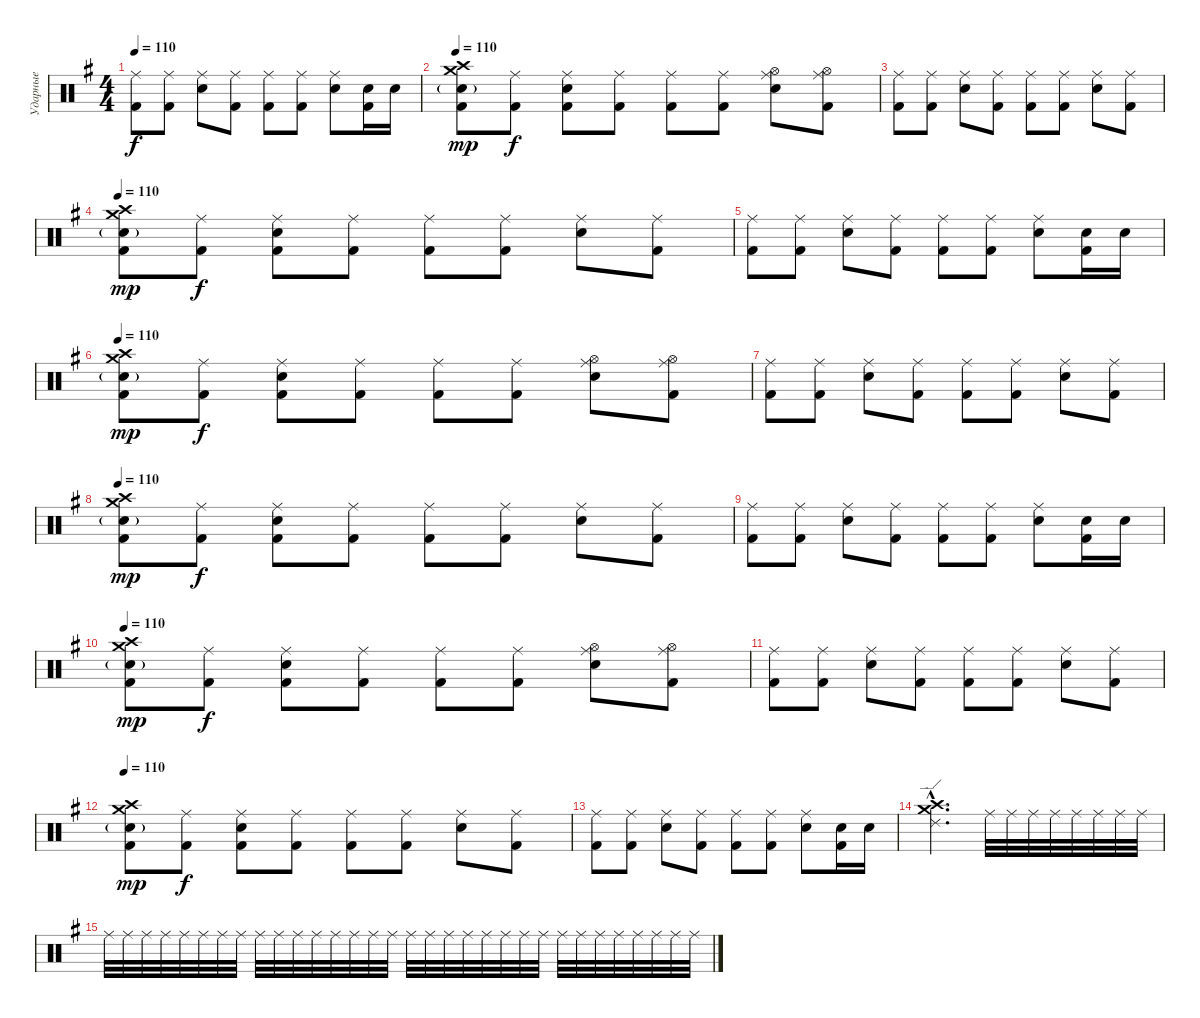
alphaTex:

\track ("Ударные" "Ударные") {instrument percussion}
\staff {score}
\articulation defaults
\ts (4 4)
\tempo 110
\clef neutral
\ks eminor
("Ride (middle)" "Kick (hit) 2").8{dy f} ("Ride (middle)" "Kick (hit) 2").8 ("Ride (middle)" "Electric Snare (hit)").8 ("Ride (middle)" "Kick (hit) 2").8 ("Ride (middle)" "Kick (hit) 2").8 ("Ride (middle)" "Kick (hit) 2").8 ("Ride (middle)" "Electric Snare (hit)").8 ("Electric Snare (hit)" "Kick (hit) 2").16 "Electric Snare (hit)".16 |
\tempo 110
("Crash high (hit)" "Crash medium (hit)" "Electric Snare (hit)"{g} "Kick (hit) 2").8{dy mp} ("Ride (middle)" "Kick (hit) 2").8{dy f} ("Ride (middle)" "Electric Snare (hit)" "Kick (hit) 2").8 ("Ride (middle)" "Kick (hit) 2").8 ("Ride (middle)" "Kick (hit) 2").8 ("Ride (middle)" "Kick (hit) 2").8 ("Ride (middle)" "Hi-Hat (open)" "Electric Snare (hit)").8 ("Ride (middle)" "Hi-Hat (open)" "Kick (hit) 2").8 |
("Ride (middle)" "Kick (hit) 2").8 ("Ride (middle)" "Kick (hit) 2").8 ("Ride (middle)" "Electric Snare (hit)").8 ("Ride (middle)" "Kick (hit) 2").8 ("Ride (middle)" "Kick (hit) 2").8 ("Ride (middle)" "Kick (hit) 2").8 ("Ride (middle)" "Electric Snare (hit)").8 ("Ride (middle)" "Kick (hit) 2").8 |
\tempo 110
("Crash high (hit)" "Crash medium (hit)" "Electric Snare (hit)"{g} "Kick (hit) 2").8{dy mp} ("Ride (middle)" "Kick (hit) 2").8{dy f} ("Ride (middle)" "Electric Snare (hit)" "Kick (hit) 2").8 ("Ride (middle)" "Kick (hit) 2").8 ("Ride (middle)" "Kick (hit) 2").8 ("Ride (middle)" "Kick (hit) 2").8 ("Ride (middle)" "Electric Snare (hit)").8 ("Ride (middle)" "Kick (hit) 2").8 |
("Ride (middle)" "Kick (hit) 2").8 ("Ride (middle)" "Kick (hit) 2").8 ("Ride (middle)" "Electric Snare (hit)").8 ("Ride (middle)" "Kick (hit) 2").8 ("Ride (middle)" "Kick (hit) 2").8 ("Ride (middle)" "Kick (hit) 2").8 ("Ride (middle)" "Electric Snare (hit)").8 ("Electric Snare (hit)" "Kick (hit) 2").16 "Electric Snare (hit)".16 |
\tempo 110
("Crash high (hit)" "Crash medium (hit)" "Electric Snare (hit)"{g} "Kick (hit) 2").8{dy mp} ("Ride (middle)" "Kick (hit) 2").8{dy f} ("Ride (middle)" "Electric Snare (hit)" "Kick (hit) 2").8 ("Ride (middle)" "Kick (hit) 2").8 ("Ride (middle)" "Kick (hit) 2").8 ("Ride (middle)" "Kick (hit) 2").8 ("Ride (middle)" "Hi-Hat (open)" "Electric Snare (hit)").8 ("Ride (middle)" "Hi-Hat (open)" "Kick (hit) 2").8 |
("Ride (middle)" "Kick (hit) 2").8 ("Ride (middle)" "Kick (hit) 2").8 ("Ride (middle)" "Electric Snare (hit)").8 ("Ride (middle)" "Kick (hit) 2").8 ("Ride (middle)" "Kick (hit) 2").8 ("Ride (middle)" "Kick (hit) 2").8 ("Ride (middle)" "Electric Snare (hit)").8 ("Ride (middle)" "Kick (hit) 2").8 |
\tempo 110
("Crash high (hit)" "Crash medium (hit)" "Electric Snare (hit)"{g} "Kick (hit) 2").8{dy mp} ("Ride (middle)" "Kick (hit) 2").8{dy f} ("Ride (middle)" "Electric Snare (hit)" "Kick (hit) 2").8 ("Ride (middle)" "Kick (hit) 2").8 ("Ride (middle)" "Kick (hit) 2").8 ("Ride (middle)" "Kick (hit) 2").8 ("Ride (middle)" "Electric Snare (hit)").8 ("Ride (middle)" "Kick (hit) 2").8 |
("Ride (middle)" "Kick (hit) 2").8 ("Ride (middle)" "Kick (hit) 2").8 ("Ride (middle)" "Electric Snare (hit)").8 ("Ride (middle)" "Kick (hit) 2").8 ("Ride (middle)" "Kick (hit) 2").8 ("Ride (middle)" "Kick (hit) 2").8 ("Ride (middle)" "Electric Snare (hit)").8 ("Electric Snare (hit)" "Kick (hit) 2").16 "Electric Snare (hit)".16 |
\tempo 110
("Crash high (hit)" "Crash medium (hit)" "Electric Snare (hit)"{g} "Kick (hit) 2").8{dy mp} ("Ride (middle)" "Kick (hit) 2").8{dy f} ("Ride (middle)" "Electric Snare (hit)" "Kick (hit) 2").8 ("Ride (middle)" "Kick (hit) 2").8 ("Ride (middle)" "Kick (hit) 2").8 ("Ride (middle)" "Kick (hit) 2").8 ("Ride (middle)" "Hi-Hat (open)" "Electric Snare (hit)").8 ("Ride (middle)" "Hi-Hat (open)" "Kick (hit) 2").8 |
("Ride (middle)" "Kick (hit) 2").8 ("Ride (middle)" "Kick (hit) 2").8 ("Ride (middle)" "Electric Snare (hit)").8 ("Ride (middle)" "Kick (hit) 2").8 ("Ride (middle)" "Kick (hit) 2").8 ("Ride (middle)" "Kick (hit) 2").8 ("Ride (middle)" "Electric Snare (hit)").8 ("Ride (middle)" "Kick (hit) 2").8 |
\tempo 110
("Crash high (hit)" "Crash medium (hit)" "Electric Snare (hit)"{g} "Kick (hit) 2").8{dy mp} ("Ride (middle)" "Kick (hit) 2").8{dy f} ("Ride (middle)" "Electric Snare (hit)" "Kick (hit) 2").8 ("Ride (middle)" "Kick (hit) 2").8 ("Ride (middle)" "Kick (hit) 2").8 ("Ride (middle)" "Kick (hit) 2").8 ("Ride (middle)" "Electric Snare (hit)").8 ("Ride (middle)" "Kick (hit) 2").8 |
("Ride (middle)" "Kick (hit) 2").8 ("Ride (middle)" "Kick (hit) 2").8 ("Ride (middle)" "Electric Snare (hit)").8 ("Ride (middle)" "Kick (hit) 2").8 ("Ride (middle)" "Kick (hit) 2").8 ("Ride (middle)" "Kick (hit) 2").8 ("Ride (middle)" "Electric Snare (hit)").8 ("Electric Snare (hit)" "Kick (hit) 2").16 "Electric Snare (hit)".16 |
("Crash high (hit)"{hac} "Ride (edge) 2"{hac} "Crash medium (hit)"{hac}).2{d} "Ride (middle)".32{volume 8} "Ride (middle)".32 "Ride (middle)".32 "Ride (middle)".32 "Ride (middle)".32 "Ride (middle)".32 "Ride (middle)".32 "Ride (middle)".32 |
"Ride (middle)".32 "Ride (middle)".32 "Ride (middle)".32 "Ride (middle)".32 "Ride (middle)".32 "Ride (middle)".32 "Ride (middle)".32 "Ride (middle)".32 "Ride (middle)".32 "Ride (middle)".32 "Ride (middle)".32 "Ride (middle)".32 "Ride (middle)".32 "Ride (middle)".32 "Ride (middle)".32 "Ride (middle)".32 "Ride (middle)".32 "Ride (middle)".32 "Ride (middle)".32 "Ride (middle)".32 "Ride (middle)".32 "Ride (middle)".32 "Ride (middle)".32 "Ride (middle)".32 "Ride (middle)".32 "Ride (middle)".32 "Ride (middle)".32 "Ride (middle)".32 "Ride (middle)".32 "Ride (middle)".32 "Ride (middle)".32 "Ride (middle)".32
